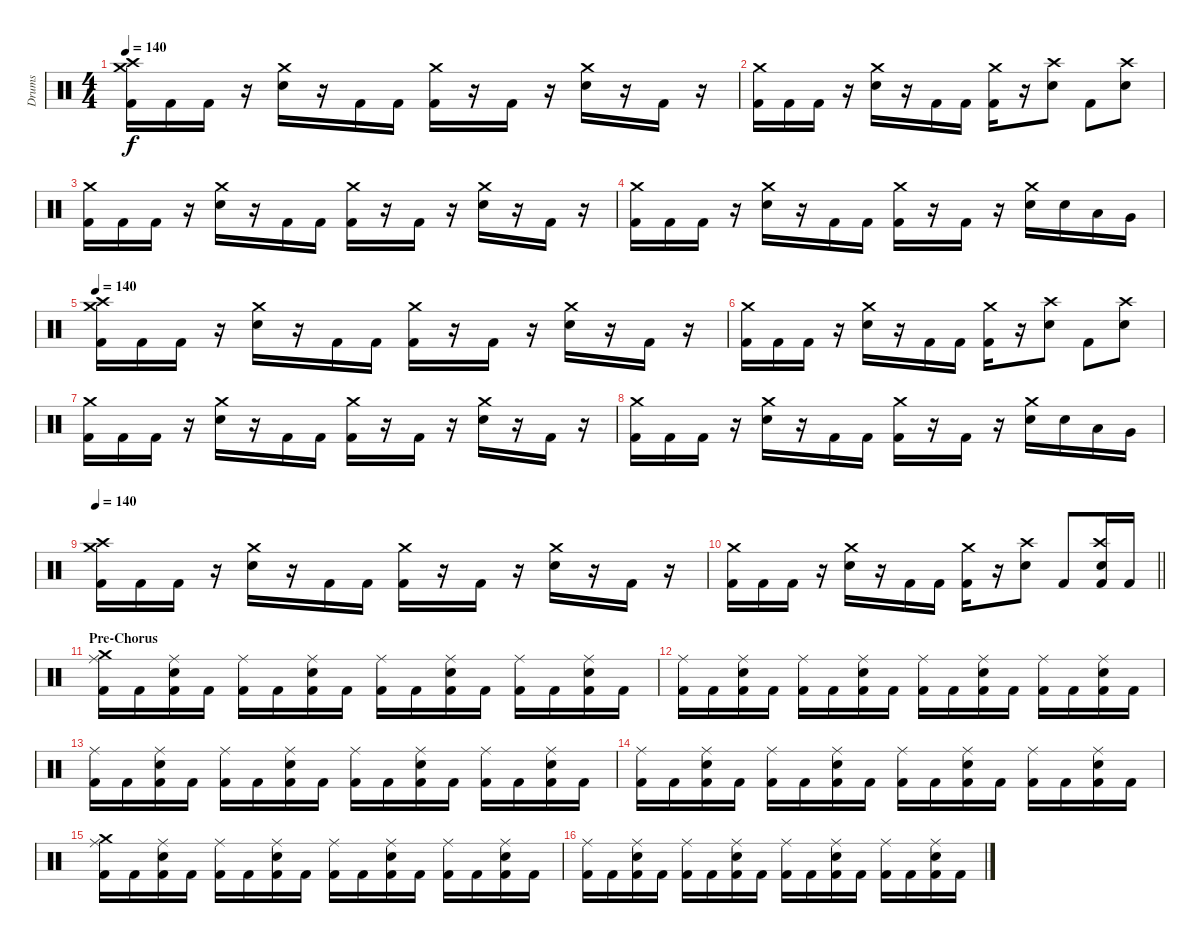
\track ("Drums" "Drums") {instrument percussion}
\staff {score}
\articulation defaults
\ts (4 4)
\tempo 140
\clef neutral
\ks c
("Kick (hit) 2" "Crash medium (hit)" "Crash high (hit)").16{dy f} "Kick (hit) 2".16 "Kick (hit) 2".16 r.16 ("Snare (hit) 2" "Crash medium (hit)").16 r.16 "Kick (hit) 2".16 "Kick (hit) 2".16 ("Kick (hit) 2" "Crash medium (hit)").16 r.16 "Kick (hit) 2".16 r.16 ("Snare (hit) 2" "Crash medium (hit)").16 r.16 "Kick (hit) 2".16 r.16 |
("Kick (hit) 2" "Crash medium (hit)").16 "Kick (hit) 2".16 "Kick (hit) 2".16 r.16 ("Snare (hit) 2" "Crash medium (hit)").16 r.16 "Kick (hit) 2".16 "Kick (hit) 2".16 ("Kick (hit) 2" "Crash medium (hit)").16 r.16 ("Snare (hit) 2" "Crash high (hit)").8 "Kick (hit) 2".8 ("Snare (hit) 2" "Crash high (hit)").8 |
("Kick (hit) 2" "Crash medium (hit)").16 "Kick (hit) 2".16 "Kick (hit) 2".16 r.16 ("Snare (hit) 2" "Crash medium (hit)").16 r.16 "Kick (hit) 2".16 "Kick (hit) 2".16 ("Kick (hit) 2" "Crash medium (hit)").16 r.16 "Kick (hit) 2".16 r.16 ("Snare (hit) 2" "Crash medium (hit)").16 r.16 "Kick (hit) 2".16 r.16 |
("Kick (hit) 2" "Crash medium (hit)").16 "Kick (hit) 2".16 "Kick (hit) 2".16 r.16 ("Snare (hit) 2" "Crash medium (hit)").16 r.16 "Kick (hit) 2".16 "Kick (hit) 2".16 ("Kick (hit) 2" "Crash medium (hit)").16 r.16 "Kick (hit) 2".16 r.16 ("Snare (hit) 2" "Crash medium (hit)").16 "Snare (hit) 2".16 "Low Tom (hit)".16 "Very Low Tom (hit)".16 |
\tempo 140
("Kick (hit) 2" "Crash medium (hit)" "Crash high (hit)").16 "Kick (hit) 2".16 "Kick (hit) 2".16 r.16 ("Snare (hit) 2" "Crash medium (hit)").16 r.16 "Kick (hit) 2".16 "Kick (hit) 2".16 ("Kick (hit) 2" "Crash medium (hit)").16 r.16 "Kick (hit) 2".16 r.16 ("Snare (hit) 2" "Crash medium (hit)").16 r.16 "Kick (hit) 2".16 r.16 |
("Kick (hit) 2" "Crash medium (hit)").16 "Kick (hit) 2".16 "Kick (hit) 2".16 r.16 ("Snare (hit) 2" "Crash medium (hit)").16 r.16 "Kick (hit) 2".16 "Kick (hit) 2".16 ("Kick (hit) 2" "Crash medium (hit)").16 r.16 ("Snare (hit) 2" "Crash high (hit)").8 "Kick (hit) 2".8 ("Snare (hit) 2" "Crash high (hit)").8 |
("Kick (hit) 2" "Crash medium (hit)").16 "Kick (hit) 2".16 "Kick (hit) 2".16 r.16 ("Snare (hit) 2" "Crash medium (hit)").16 r.16 "Kick (hit) 2".16 "Kick (hit) 2".16 ("Kick (hit) 2" "Crash medium (hit)").16 r.16 "Kick (hit) 2".16 r.16 ("Snare (hit) 2" "Crash medium (hit)").16 r.16 "Kick (hit) 2".16 r.16 |
("Kick (hit) 2" "Crash medium (hit)").16 "Kick (hit) 2".16 "Kick (hit) 2".16 r.16 ("Snare (hit) 2" "Crash medium (hit)").16 r.16 "Kick (hit) 2".16 "Kick (hit) 2".16 ("Kick (hit) 2" "Crash medium (hit)").16 r.16 "Kick (hit) 2".16 r.16 ("Snare (hit) 2" "Crash medium (hit)").16 "Snare (hit) 2".16 "Low Tom (hit)".16 "Very Low Tom (hit)".16 |
\tempo 140
("Kick (hit) 2" "Crash medium (hit)" "Crash high (hit)").16 "Kick (hit) 2".16 "Kick (hit) 2".16 r.16 ("Snare (hit) 2" "Crash medium (hit)").16 r.16 "Kick (hit) 2".16 "Kick (hit) 2".16 ("Kick (hit) 2" "Crash medium (hit)").16 r.16 "Kick (hit) 2".16 r.16 ("Snare (hit) 2" "Crash medium (hit)").16 r.16 "Kick (hit) 2".16 r.16 |
\barLineRight lightlight
("Kick (hit) 2" "Crash medium (hit)").16 "Kick (hit) 2".16 "Kick (hit) 2".16 r.16 ("Snare (hit) 2" "Crash medium (hit)").16 r.16 "Kick (hit) 2".16 "Kick (hit) 2".16 ("Kick (hit) 2" "Crash medium (hit)").16 r.16 ("Snare (hit) 2" "Crash high (hit)").8 "Kick (hit) 2".8 ("Snare (hit) 2" "Kick (hit) 2" "Crash high (hit)").16 "Kick (hit) 2".16 |
\section ("" "Pre-Chorus")
("Kick (hit) 2" "Ride (middle)" "Crash medium (hit)").16 "Kick (hit) 2".16 ("Snare (hit) 2" "Kick (hit) 2" "Ride (middle)").16 "Kick (hit) 2".16 ("Kick (hit) 2" "Ride (middle)").16 "Kick (hit) 2".16 ("Snare (hit) 2" "Kick (hit) 2" "Ride (middle)").16 "Kick (hit) 2".16 ("Kick (hit) 2" "Ride (middle)").16 "Kick (hit) 2".16 ("Snare (hit) 2" "Kick (hit) 2" "Ride (middle)").16 "Kick (hit) 2".16 ("Kick (hit) 2" "Ride (middle)").16 "Kick (hit) 2".16 ("Snare (hit) 2" "Kick (hit) 2" "Ride (middle)").16 "Kick (hit) 2".16 |
("Kick (hit) 2" "Ride (middle)").16 "Kick (hit) 2".16 ("Snare (hit) 2" "Kick (hit) 2" "Ride (middle)").16 "Kick (hit) 2".16 ("Kick (hit) 2" "Ride (middle)").16 "Kick (hit) 2".16 ("Snare (hit) 2" "Kick (hit) 2" "Ride (middle)").16 "Kick (hit) 2".16 ("Kick (hit) 2" "Ride (middle)").16 "Kick (hit) 2".16 ("Snare (hit) 2" "Kick (hit) 2" "Ride (middle)").16 "Kick (hit) 2".16 ("Kick (hit) 2" "Ride (middle)").16 "Kick (hit) 2".16 ("Snare (hit) 2" "Kick (hit) 2" "Ride (middle)").16 "Kick (hit) 2".16 |
("Kick (hit) 2" "Ride (middle)").16 "Kick (hit) 2".16 ("Snare (hit) 2" "Kick (hit) 2" "Ride (middle)").16 "Kick (hit) 2".16 ("Kick (hit) 2" "Ride (middle)").16 "Kick (hit) 2".16 ("Snare (hit) 2" "Kick (hit) 2" "Ride (middle)").16 "Kick (hit) 2".16 ("Kick (hit) 2" "Ride (middle)").16 "Kick (hit) 2".16 ("Snare (hit) 2" "Kick (hit) 2" "Ride (middle)").16 "Kick (hit) 2".16 ("Kick (hit) 2" "Ride (middle)").16 "Kick (hit) 2".16 ("Snare (hit) 2" "Kick (hit) 2" "Ride (middle)").16 "Kick (hit) 2".16 |
("Kick (hit) 2" "Ride (middle)").16 "Kick (hit) 2".16 ("Snare (hit) 2" "Kick (hit) 2" "Ride (middle)").16 "Kick (hit) 2".16 ("Kick (hit) 2" "Ride (middle)").16 "Kick (hit) 2".16 ("Snare (hit) 2" "Kick (hit) 2" "Ride (middle)").16 "Kick (hit) 2".16 ("Kick (hit) 2" "Ride (middle)").16 "Kick (hit) 2".16 ("Snare (hit) 2" "Kick (hit) 2" "Ride (middle)").16 "Kick (hit) 2".16 ("Kick (hit) 2" "Ride (middle)").16 "Kick (hit) 2".16 ("Snare (hit) 2" "Kick (hit) 2" "Ride (middle)").16 "Kick (hit) 2".16 |
("Kick (hit) 2" "Ride (middle)" "Crash medium (hit)").16 "Kick (hit) 2".16 ("Snare (hit) 2" "Kick (hit) 2" "Ride (middle)").16 "Kick (hit) 2".16 ("Kick (hit) 2" "Ride (middle)").16 "Kick (hit) 2".16 ("Snare (hit) 2" "Kick (hit) 2" "Ride (middle)").16 "Kick (hit) 2".16 ("Kick (hit) 2" "Ride (middle)").16 "Kick (hit) 2".16 ("Snare (hit) 2" "Kick (hit) 2" "Ride (middle)").16 "Kick (hit) 2".16 ("Kick (hit) 2" "Ride (middle)").16 "Kick (hit) 2".16 ("Snare (hit) 2" "Kick (hit) 2" "Ride (middle)").16 "Kick (hit) 2".16 |
("Kick (hit) 2" "Ride (middle)").16 "Kick (hit) 2".16 ("Snare (hit) 2" "Kick (hit) 2" "Ride (middle)").16 "Kick (hit) 2".16 ("Kick (hit) 2" "Ride (middle)").16 "Kick (hit) 2".16 ("Snare (hit) 2" "Kick (hit) 2" "Ride (middle)").16 "Kick (hit) 2".16 ("Kick (hit) 2" "Ride (middle)").16 "Kick (hit) 2".16 ("Snare (hit) 2" "Kick (hit) 2" "Ride (middle)").16 "Kick (hit) 2".16 ("Kick (hit) 2" "Ride (middle)").16 "Kick (hit) 2".16 ("Snare (hit) 2" "Kick (hit) 2" "Ride (middle)").16 "Kick (hit) 2".16
